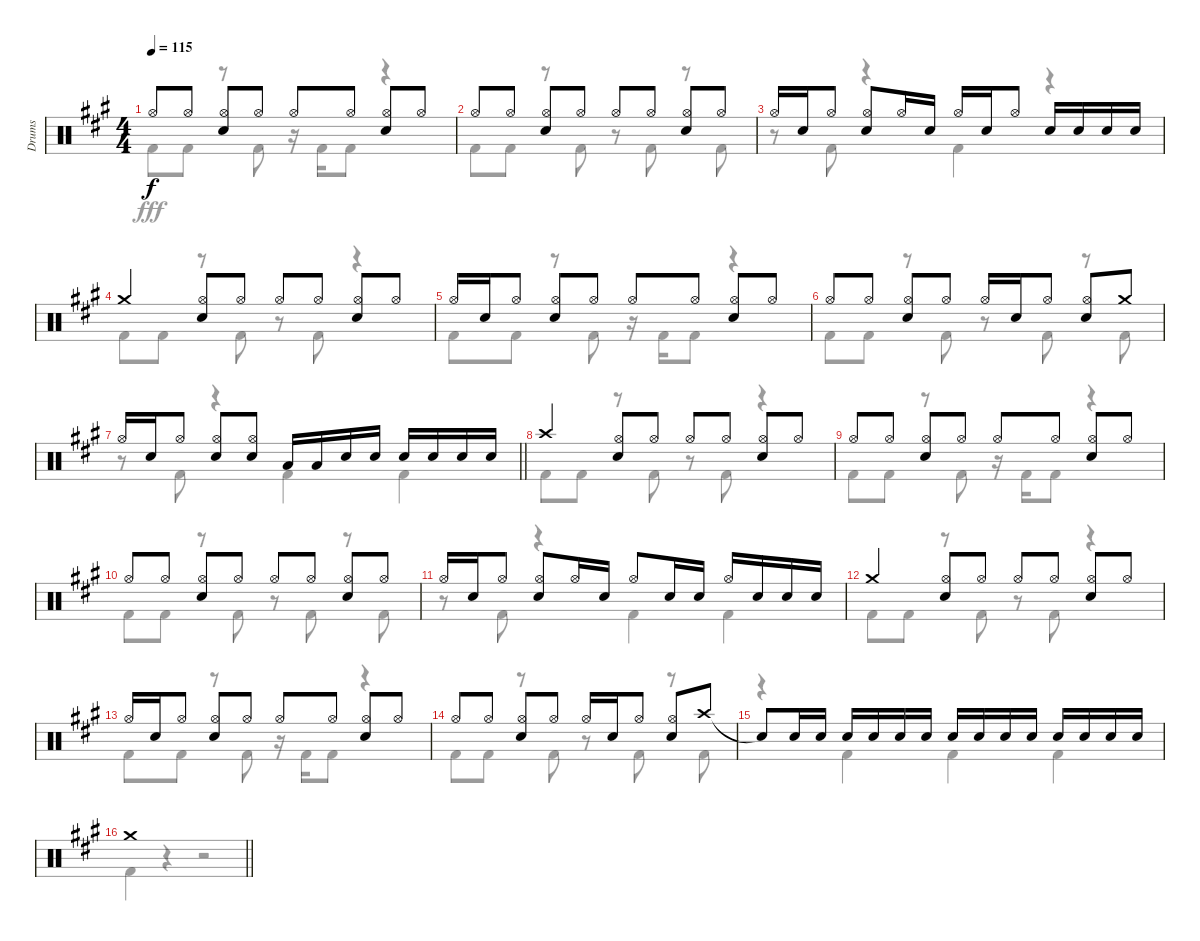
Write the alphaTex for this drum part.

\track ("Drums" "Drums") {instrument percussion}
\staff {score}
\articulation defaults
\voice
\ts (4 4)
\tempo 115
\clef neutral
\ks a "Hi-Hat (open)".8{dy f} "Hi-Hat (open)".8
("Hi-Hat (open)" "Snare (hit) 2").8 "Hi-Hat (open)".8 "Hi-Hat (open)".8 "Hi-Hat (open)".8 ("Hi-Hat (open)" "Snare (hit) 2").8 "Hi-Hat (open)".8 |
"Hi-Hat (open)".8 "Hi-Hat (open)".8 ("Hi-Hat (open)" "Snare (hit) 2").8 "Hi-Hat (open)".8 "Hi-Hat (open)".8 "Hi-Hat (open)".8 ("Hi-Hat (open)" "Snare (hit) 2").8 "Hi-Hat (open)".8 |
"Hi-Hat (open)".16 "Snare (hit) 2".16 "Hi-Hat (open)".8 ("Hi-Hat (open)" "Snare (hit) 2").8 "Hi-Hat (open)".16 "Snare (hit) 2".16 "Hi-Hat (open)".16 "Snare (hit) 2".16 "Hi-Hat (open)".8 "Snare (hit) 2".16 "Snare (hit) 2".16 "Snare (hit) 2".16 "Snare (hit) 2".16 |
"Crash medium (hit)".4 ("Hi-Hat (open)" "Snare (hit) 2").8 "Hi-Hat (open)".8 "Hi-Hat (open)".8 "Hi-Hat (open)".8 ("Hi-Hat (open)" "Snare (hit) 2").8 "Hi-Hat (open)".8 |
"Hi-Hat (open)".16 "Snare (hit) 2".16 "Hi-Hat (open)".8 ("Hi-Hat (open)" "Snare (hit) 2").8 "Hi-Hat (open)".8 "Hi-Hat (open)".8 "Hi-Hat (open)".8 ("Hi-Hat (open)" "Snare (hit) 2").8 "Hi-Hat (open)".8 |
"Hi-Hat (open)".8 "Hi-Hat (open)".8 ("Hi-Hat (open)" "Snare (hit) 2").8 "Hi-Hat (open)".8 "Hi-Hat (open)".16 "Snare (hit) 2".16 "Hi-Hat (open)".8 ("Hi-Hat (open)" "Snare (hit) 2").8 "Crash medium (hit)".8 |
\barLineRight lightlight "Hi-Hat (open)".16 "Snare (hit) 2".16 "Hi-Hat (open)".8
("Hi-Hat (open)" "Snare (hit) 2").8 ("Hi-Hat (open)" "Snare (hit) 2").8 "Low Tom (hit)".16 "Low Tom (hit)".16 "Snare (hit) 2".16 "Snare (hit) 2".16 "Snare (hit) 2".16 "Snare (hit) 2".16 "Snare (hit) 2".16 "Snare (hit) 2".16 |
"Crash high (hit)".4 ("Hi-Hat (open)" "Snare (hit) 2").8 "Hi-Hat (open)".8 "Hi-Hat (open)".8 "Hi-Hat (open)".8 ("Hi-Hat (open)" "Snare (hit) 2").8 "Hi-Hat (open)".8 |
"Hi-Hat (open)".8 "Hi-Hat (open)".8 ("Hi-Hat (open)" "Snare (hit) 2").8 "Hi-Hat (open)".8 "Hi-Hat (open)".8 "Hi-Hat (open)".8 ("Hi-Hat (open)" "Snare (hit) 2").8 "Hi-Hat (open)".8 |
"Hi-Hat (open)".8 "Hi-Hat (open)".8 ("Hi-Hat (open)" "Snare (hit) 2").8 "Hi-Hat (open)".8 "Hi-Hat (open)".8 "Hi-Hat (open)".8 ("Hi-Hat (open)" "Snare (hit) 2").8 "Hi-Hat (open)".8 |
"Hi-Hat (open)".16 "Snare (hit) 2".16 "Hi-Hat (open)".8 ("Hi-Hat (open)" "Snare (hit) 2").8 "Hi-Hat (open)".16 "Snare (hit) 2".16 "Hi-Hat (open)".8 "Snare (hit) 2".16 "Snare (hit) 2".16 "Hi-Hat (open)".16 "Snare (hit) 2".16 "Snare (hit) 2".16 "Snare (hit) 2".16 |
"Crash medium (hit)".4 ("Hi-Hat (open)" "Snare (hit) 2").8 "Hi-Hat (open)".8 "Hi-Hat (open)".8 "Hi-Hat (open)".8 ("Hi-Hat (open)" "Snare (hit) 2").8 "Hi-Hat (open)".8 |
"Hi-Hat (open)".16 "Snare (hit) 2".16 "Hi-Hat (open)".8 ("Hi-Hat (open)" "Snare (hit) 2").8 "Hi-Hat (open)".8 "Hi-Hat (open)".8 "Hi-Hat (open)".8 ("Hi-Hat (open)" "Snare (hit) 2").8 "Hi-Hat (open)".8 |
"Hi-Hat (open)".8 "Hi-Hat (open)".8 ("Hi-Hat (open)" "Snare (hit) 2").8 "Hi-Hat (open)".8 "Hi-Hat (open)".16 "Snare (hit) 2".16 "Hi-Hat (open)".8 ("Hi-Hat (open)" "Snare (hit) 2").8 "Crash high (hit)".8 |
"Snare (hit)"{t}.8 "Snare (hit) 2".16 "Snare (hit) 2".16 "Snare (hit) 2".16 "Snare (hit) 2".16 "Snare (hit) 2".16 "Snare (hit) 2".16 "Snare (hit) 2".16 "Snare (hit) 2".16 "Snare (hit) 2".16 "Snare (hit) 2".16 "Snare (hit) 2".16 "Snare (hit) 2".16 "Snare (hit) 2".16 "Snare (hit) 2".16 |
\barLineRight lightlight "Crash medium (hit)".1
\voice
\clef neutral
\ottava regular
\simile none
\ks a "Kick (hit) 2".8{dy fff} "Kick (hit) 2".8
r.8 "Kick (hit) 2".8 r.16 "Kick (hit) 2".16 "Kick (hit) 2".8 r.4 |
"Kick (hit) 2".8 "Kick (hit) 2".8 r.8 "Kick (hit) 2".8 r.8 "Kick (hit) 2".8 r.8 "Kick (hit) 2".8 |
r.8 "Kick (hit) 2".8 r.4 "Kick (hit) 2".4 r.4 |
"Kick (hit) 2".8 "Kick (hit) 2".8 r.8 "Kick (hit) 2".8 r.8 "Kick (hit) 2".8 r.4 |
"Kick (hit) 2".8 "Kick (hit) 2".8 r.8 "Kick (hit) 2".8 r.16 "Kick (hit) 2".16 "Kick (hit) 2".8 r.4 |
"Kick (hit) 2".8 "Kick (hit) 2".8 r.8 "Kick (hit) 2".8 r.8 "Kick (hit) 2".8 r.8 "Kick (hit) 2".8 |
\barLineRight lightlight
r.8 "Kick (hit) 2".8 r.4 "Kick (hit) 2".4 "Kick (hit) 2".4 |
"Kick (hit) 2".8 "Kick (hit) 2".8 r.8 "Kick (hit) 2".8 r.8 "Kick (hit) 2".8 r.4 |
"Kick (hit) 2".8 "Kick (hit) 2".8 r.8 "Kick (hit) 2".8 r.16 "Kick (hit) 2".16 "Kick (hit) 2".8 r.4 |
"Kick (hit) 2".8 "Kick (hit) 2".8 r.8 "Kick (hit) 2".8 r.8 "Kick (hit) 2".8 r.8 "Kick (hit) 2".8 |
r.8 "Kick (hit) 2".8 r.4 "Kick (hit) 2".4 "Kick (hit) 2".4 |
"Kick (hit) 2".8 "Kick (hit) 2".8 r.8 "Kick (hit) 2".8 r.8 "Kick (hit) 2".8 r.4 |
"Kick (hit) 2".8 "Kick (hit) 2".8 r.8 "Kick (hit) 2".8 r.16 "Kick (hit) 2".16 "Kick (hit) 2".8 r.4 |
"Kick (hit) 2".8 "Kick (hit) 2".8 r.8 "Kick (hit) 2".8 r.8 "Kick (hit) 2".8 r.8 "Kick (hit) 2".8 |
r.4 "Kick (hit) 2".4 "Kick (hit) 2".4 "Kick (hit) 2".4 |
\barLineRight lightlight "Kick (hit) 2".4
r.4 r.2
